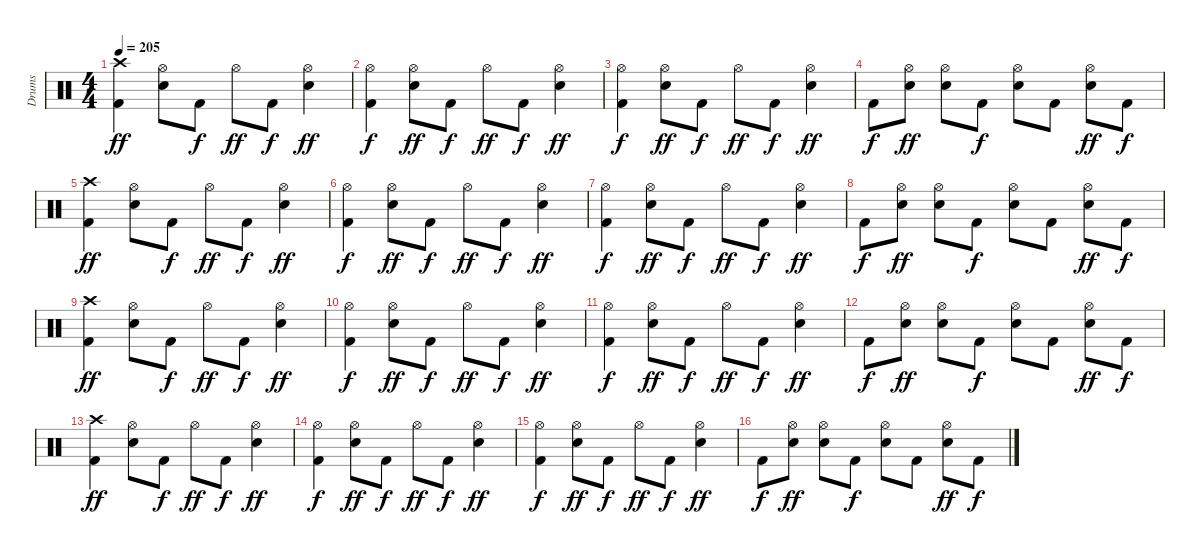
\track ("Drums" "Drums") {instrument percussion}
\staff {score}
\articulation defaults
\ts (4 4)
\tempo 205
\clef neutral
\ks c
("Crash high (hit)" "Kick (hit) 2").4{dy ff} ("Hi-Hat (open)" "Electric Snare (hit)").8 "Kick (hit) 2".8{dy f} "Hi-Hat (open)".8{dy ff} "Kick (hit) 2".8{dy f} ("Hi-Hat (open)" "Electric Snare (hit)").4{dy ff} |
("Hi-Hat (open)" "Kick (hit) 2").4{dy f} ("Hi-Hat (open)" "Electric Snare (hit)").8{dy ff} "Kick (hit) 2".8{dy f} "Hi-Hat (open)".8{dy ff} "Kick (hit) 2".8{dy f} ("Hi-Hat (open)" "Electric Snare (hit)").4{dy ff} |
("Hi-Hat (open)" "Kick (hit) 2").4{dy f} ("Hi-Hat (open)" "Electric Snare (hit)").8{dy ff} "Kick (hit) 2".8{dy f} "Hi-Hat (open)".8{dy ff} "Kick (hit) 2".8{dy f} ("Hi-Hat (open)" "Electric Snare (hit)").4{dy ff} |
"Kick (hit) 2".8{dy f} ("Hi-Hat (open)" "Electric Snare (hit)").8{dy ff} ("Hi-Hat (open)" "Electric Snare (hit)").8 "Kick (hit) 2".8{dy f} ("Hi-Hat (open)" "Electric Snare (hit)").8 "Kick (hit) 2".8 ("Hi-Hat (open)" "Electric Snare (hit)").8{dy ff} "Kick (hit) 2".8{dy f} |
("Crash high (hit)" "Kick (hit) 2").4{dy ff} ("Hi-Hat (open)" "Electric Snare (hit)").8 "Kick (hit) 2".8{dy f} "Hi-Hat (open)".8{dy ff} "Kick (hit) 2".8{dy f} ("Hi-Hat (open)" "Electric Snare (hit)").4{dy ff} |
("Hi-Hat (open)" "Kick (hit) 2").4{dy f} ("Hi-Hat (open)" "Electric Snare (hit)").8{dy ff} "Kick (hit) 2".8{dy f} "Hi-Hat (open)".8{dy ff} "Kick (hit) 2".8{dy f} ("Hi-Hat (open)" "Electric Snare (hit)").4{dy ff} |
("Hi-Hat (open)" "Kick (hit) 2").4{dy f} ("Hi-Hat (open)" "Electric Snare (hit)").8{dy ff} "Kick (hit) 2".8{dy f} "Hi-Hat (open)".8{dy ff} "Kick (hit) 2".8{dy f} ("Hi-Hat (open)" "Electric Snare (hit)").4{dy ff} |
"Kick (hit) 2".8{dy f} ("Hi-Hat (open)" "Electric Snare (hit)").8{dy ff} ("Hi-Hat (open)" "Electric Snare (hit)").8 "Kick (hit) 2".8{dy f} ("Hi-Hat (open)" "Electric Snare (hit)").8 "Kick (hit) 2".8 ("Hi-Hat (open)" "Electric Snare (hit)").8{dy ff} "Kick (hit) 2".8{dy f} |
("Crash high (hit)" "Kick (hit) 2").4{dy ff} ("Hi-Hat (open)" "Electric Snare (hit)").8 "Kick (hit) 2".8{dy f} "Hi-Hat (open)".8{dy ff} "Kick (hit) 2".8{dy f} ("Hi-Hat (open)" "Electric Snare (hit)").4{dy ff} |
("Hi-Hat (open)" "Kick (hit) 2").4{dy f} ("Hi-Hat (open)" "Electric Snare (hit)").8{dy ff} "Kick (hit) 2".8{dy f} "Hi-Hat (open)".8{dy ff} "Kick (hit) 2".8{dy f} ("Hi-Hat (open)" "Electric Snare (hit)").4{dy ff} |
("Hi-Hat (open)" "Kick (hit) 2").4{dy f} ("Hi-Hat (open)" "Electric Snare (hit)").8{dy ff} "Kick (hit) 2".8{dy f} "Hi-Hat (open)".8{dy ff} "Kick (hit) 2".8{dy f} ("Hi-Hat (open)" "Electric Snare (hit)").4{dy ff} |
"Kick (hit) 2".8{dy f} ("Hi-Hat (open)" "Electric Snare (hit)").8{dy ff} ("Hi-Hat (open)" "Electric Snare (hit)").8 "Kick (hit) 2".8{dy f} ("Hi-Hat (open)" "Electric Snare (hit)").8 "Kick (hit) 2".8 ("Hi-Hat (open)" "Electric Snare (hit)").8{dy ff} "Kick (hit) 2".8{dy f} |
("Crash high (hit)" "Kick (hit) 2").4{dy ff} ("Hi-Hat (open)" "Electric Snare (hit)").8 "Kick (hit) 2".8{dy f} "Hi-Hat (open)".8{dy ff} "Kick (hit) 2".8{dy f} ("Hi-Hat (open)" "Electric Snare (hit)").4{dy ff} |
("Hi-Hat (open)" "Kick (hit) 2").4{dy f} ("Hi-Hat (open)" "Electric Snare (hit)").8{dy ff} "Kick (hit) 2".8{dy f} "Hi-Hat (open)".8{dy ff} "Kick (hit) 2".8{dy f} ("Hi-Hat (open)" "Electric Snare (hit)").4{dy ff} |
("Hi-Hat (open)" "Kick (hit) 2").4{dy f} ("Hi-Hat (open)" "Electric Snare (hit)").8{dy ff} "Kick (hit) 2".8{dy f} "Hi-Hat (open)".8{dy ff} "Kick (hit) 2".8{dy f} ("Hi-Hat (open)" "Electric Snare (hit)").4{dy ff} |
"Kick (hit) 2".8{dy f} ("Hi-Hat (open)" "Electric Snare (hit)").8{dy ff} ("Hi-Hat (open)" "Electric Snare (hit)").8 "Kick (hit) 2".8{dy f} ("Hi-Hat (open)" "Electric Snare (hit)").8 "Kick (hit) 2".8 ("Hi-Hat (open)" "Electric Snare (hit)").8{dy ff} "Kick (hit) 2".8{dy f}
